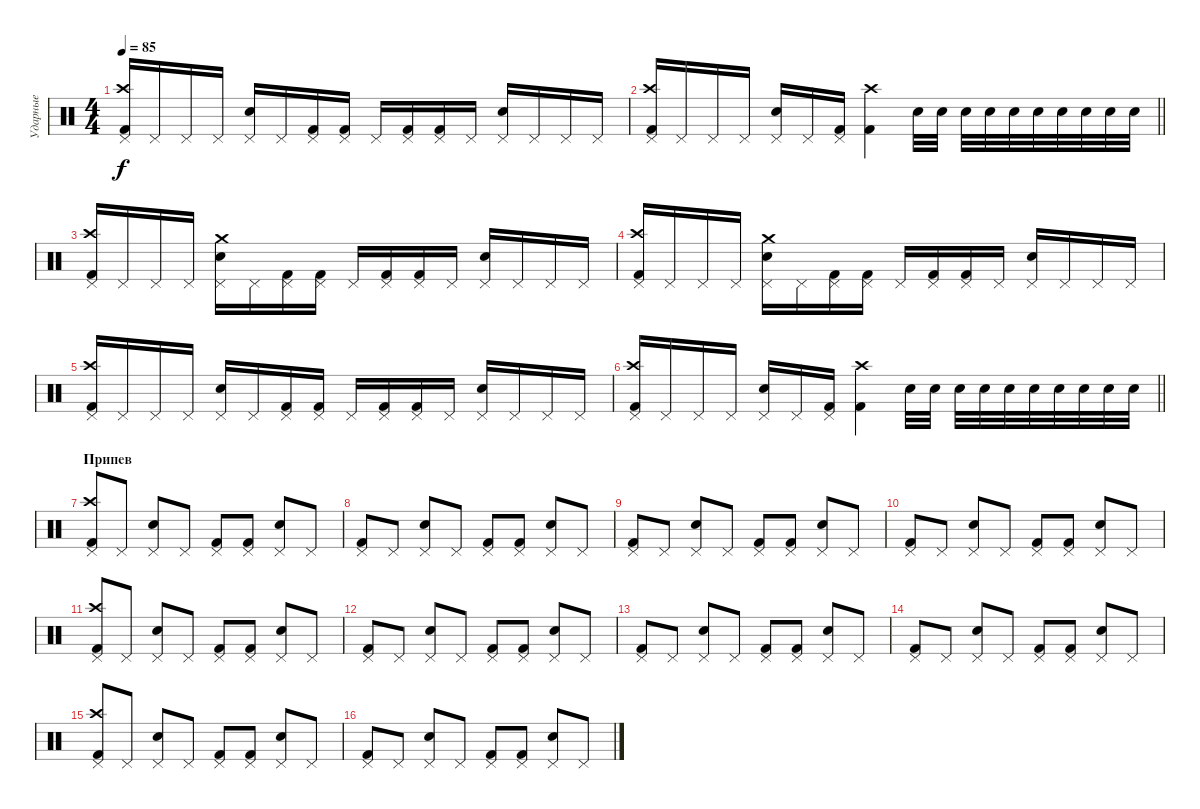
\track ("Ударные" "Ударные") {instrument percussion}
\staff {score}
\articulation defaults
\ts (4 4)
\tempo 85
\clef neutral
\ks c
("Pedal Hi-Hat (hit)" "Crash high (hit)" "Kick (hit) 2").16{dy f} "Pedal Hi-Hat (hit)".16 "Pedal Hi-Hat (hit)".16 "Pedal Hi-Hat (hit)".16 ("Pedal Hi-Hat (hit)" "Electric Snare (hit)").16 "Pedal Hi-Hat (hit)".16 ("Pedal Hi-Hat (hit)" "Kick (hit) 2").16 ("Pedal Hi-Hat (hit)" "Kick (hit) 2").16 "Pedal Hi-Hat (hit)".16 ("Pedal Hi-Hat (hit)" "Kick (hit) 2").16 ("Pedal Hi-Hat (hit)" "Kick (hit) 2").16 "Pedal Hi-Hat (hit)".16 ("Pedal Hi-Hat (hit)" "Electric Snare (hit)").16 "Pedal Hi-Hat (hit)".16 "Pedal Hi-Hat (hit)".16 "Pedal Hi-Hat (hit)".16 |
\barLineRight lightlight
("Pedal Hi-Hat (hit)" "Crash high (hit)" "Kick (hit) 2").16 "Pedal Hi-Hat (hit)".16 "Pedal Hi-Hat (hit)".16 "Pedal Hi-Hat (hit)".16 ("Pedal Hi-Hat (hit)" "Electric Snare (hit)").16 "Pedal Hi-Hat (hit)".16 ("Pedal Hi-Hat (hit)" "Kick (hit) 2").16 ("Crash high (hit)" "Kick (hit) 2").4 "Electric Snare (hit)".32 "Electric Snare (hit)".32 "Electric Snare (hit)".32 "Electric Snare (hit)".32 "Electric Snare (hit)".32 "Electric Snare (hit)".32 "Electric Snare (hit)".32 "Electric Snare (hit)".32 "Electric Snare (hit)".32 "Electric Snare (hit)".32 |
("Pedal Hi-Hat (hit)" "Crash high (hit)" "Kick (hit) 2").16 "Pedal Hi-Hat (hit)".16 "Pedal Hi-Hat (hit)".16 "Pedal Hi-Hat (hit)".16 ("Pedal Hi-Hat (hit)" "Crash medium (hit)" "Electric Snare (hit)").16 "Pedal Hi-Hat (hit)".16 ("Pedal Hi-Hat (hit)" "Kick (hit) 2").16 ("Pedal Hi-Hat (hit)" "Kick (hit) 2").16 "Pedal Hi-Hat (hit)".16 ("Pedal Hi-Hat (hit)" "Kick (hit) 2").16 ("Pedal Hi-Hat (hit)" "Kick (hit) 2").16 "Pedal Hi-Hat (hit)".16 ("Pedal Hi-Hat (hit)" "Electric Snare (hit)").16 "Pedal Hi-Hat (hit)".16 "Pedal Hi-Hat (hit)".16 "Pedal Hi-Hat (hit)".16 |
("Pedal Hi-Hat (hit)" "Crash high (hit)" "Kick (hit) 2").16 "Pedal Hi-Hat (hit)".16 "Pedal Hi-Hat (hit)".16 "Pedal Hi-Hat (hit)".16 ("Pedal Hi-Hat (hit)" "Crash medium (hit)" "Electric Snare (hit)").16 "Pedal Hi-Hat (hit)".16 ("Pedal Hi-Hat (hit)" "Kick (hit) 2").16 ("Pedal Hi-Hat (hit)" "Kick (hit) 2").16 "Pedal Hi-Hat (hit)".16 ("Pedal Hi-Hat (hit)" "Kick (hit) 2").16 ("Pedal Hi-Hat (hit)" "Kick (hit) 2").16 "Pedal Hi-Hat (hit)".16 ("Pedal Hi-Hat (hit)" "Electric Snare (hit)").16 "Pedal Hi-Hat (hit)".16 "Pedal Hi-Hat (hit)".16 "Pedal Hi-Hat (hit)".16 |
("Pedal Hi-Hat (hit)" "Crash high (hit)" "Kick (hit) 2").16 "Pedal Hi-Hat (hit)".16 "Pedal Hi-Hat (hit)".16 "Pedal Hi-Hat (hit)".16 ("Pedal Hi-Hat (hit)" "Electric Snare (hit)").16 "Pedal Hi-Hat (hit)".16 ("Pedal Hi-Hat (hit)" "Kick (hit) 2").16 ("Pedal Hi-Hat (hit)" "Kick (hit) 2").16 "Pedal Hi-Hat (hit)".16 ("Pedal Hi-Hat (hit)" "Kick (hit) 2").16 ("Pedal Hi-Hat (hit)" "Kick (hit) 2").16 "Pedal Hi-Hat (hit)".16 ("Pedal Hi-Hat (hit)" "Electric Snare (hit)").16 "Pedal Hi-Hat (hit)".16 "Pedal Hi-Hat (hit)".16 "Pedal Hi-Hat (hit)".16 |
\barLineRight lightlight
("Pedal Hi-Hat (hit)" "Crash high (hit)" "Kick (hit) 2").16 "Pedal Hi-Hat (hit)".16 "Pedal Hi-Hat (hit)".16 "Pedal Hi-Hat (hit)".16 ("Pedal Hi-Hat (hit)" "Electric Snare (hit)").16 "Pedal Hi-Hat (hit)".16 ("Pedal Hi-Hat (hit)" "Kick (hit) 2").16 ("Crash high (hit)" "Kick (hit) 2").4 "Electric Snare (hit)".32 "Electric Snare (hit)".32 "Electric Snare (hit)".32 "Electric Snare (hit)".32 "Electric Snare (hit)".32 "Electric Snare (hit)".32 "Electric Snare (hit)".32 "Electric Snare (hit)".32 "Electric Snare (hit)".32 "Electric Snare (hit)".32 |
\section ("" "Припев")
("Pedal Hi-Hat (hit)" "Crash high (hit)" "Kick (hit) 2").8 "Pedal Hi-Hat (hit)".8 ("Pedal Hi-Hat (hit)" "Electric Snare (hit)").8 "Pedal Hi-Hat (hit)".8 ("Pedal Hi-Hat (hit)" "Kick (hit) 2").8 ("Pedal Hi-Hat (hit)" "Kick (hit) 2").8 ("Pedal Hi-Hat (hit)" "Electric Snare (hit)").8 "Pedal Hi-Hat (hit)".8 |
("Pedal Hi-Hat (hit)" "Kick (hit) 2").8 "Pedal Hi-Hat (hit)".8 ("Pedal Hi-Hat (hit)" "Electric Snare (hit)").8 "Pedal Hi-Hat (hit)".8 ("Pedal Hi-Hat (hit)" "Kick (hit) 2").8 ("Pedal Hi-Hat (hit)" "Kick (hit) 2").8 ("Pedal Hi-Hat (hit)" "Electric Snare (hit)").8 "Pedal Hi-Hat (hit)".8 |
("Pedal Hi-Hat (hit)" "Kick (hit) 2").8 "Pedal Hi-Hat (hit)".8 ("Pedal Hi-Hat (hit)" "Electric Snare (hit)").8 "Pedal Hi-Hat (hit)".8 ("Pedal Hi-Hat (hit)" "Kick (hit) 2").8 ("Pedal Hi-Hat (hit)" "Kick (hit) 2").8 ("Pedal Hi-Hat (hit)" "Electric Snare (hit)").8 "Pedal Hi-Hat (hit)".8 |
("Pedal Hi-Hat (hit)" "Kick (hit) 2").8 "Pedal Hi-Hat (hit)".8 ("Pedal Hi-Hat (hit)" "Electric Snare (hit)").8 "Pedal Hi-Hat (hit)".8 ("Pedal Hi-Hat (hit)" "Kick (hit) 2").8 ("Pedal Hi-Hat (hit)" "Kick (hit) 2").8 ("Pedal Hi-Hat (hit)" "Electric Snare (hit)").8 "Pedal Hi-Hat (hit)".8 |
("Pedal Hi-Hat (hit)" "Crash high (hit)" "Kick (hit) 2").8 "Pedal Hi-Hat (hit)".8 ("Pedal Hi-Hat (hit)" "Electric Snare (hit)").8 "Pedal Hi-Hat (hit)".8 ("Pedal Hi-Hat (hit)" "Kick (hit) 2").8 ("Pedal Hi-Hat (hit)" "Kick (hit) 2").8 ("Pedal Hi-Hat (hit)" "Electric Snare (hit)").8 "Pedal Hi-Hat (hit)".8 |
("Pedal Hi-Hat (hit)" "Kick (hit) 2").8 "Pedal Hi-Hat (hit)".8 ("Pedal Hi-Hat (hit)" "Electric Snare (hit)").8 "Pedal Hi-Hat (hit)".8 ("Pedal Hi-Hat (hit)" "Kick (hit) 2").8 ("Pedal Hi-Hat (hit)" "Kick (hit) 2").8 ("Pedal Hi-Hat (hit)" "Electric Snare (hit)").8 "Pedal Hi-Hat (hit)".8 |
("Pedal Hi-Hat (hit)" "Kick (hit) 2").8 "Pedal Hi-Hat (hit)".8 ("Pedal Hi-Hat (hit)" "Electric Snare (hit)").8 "Pedal Hi-Hat (hit)".8 ("Pedal Hi-Hat (hit)" "Kick (hit) 2").8 ("Pedal Hi-Hat (hit)" "Kick (hit) 2").8 ("Pedal Hi-Hat (hit)" "Electric Snare (hit)").8 "Pedal Hi-Hat (hit)".8 |
("Pedal Hi-Hat (hit)" "Kick (hit) 2").8 "Pedal Hi-Hat (hit)".8 ("Pedal Hi-Hat (hit)" "Electric Snare (hit)").8 "Pedal Hi-Hat (hit)".8 ("Pedal Hi-Hat (hit)" "Kick (hit) 2").8 ("Pedal Hi-Hat (hit)" "Kick (hit) 2").8 ("Pedal Hi-Hat (hit)" "Electric Snare (hit)").8 "Pedal Hi-Hat (hit)".8 |
("Pedal Hi-Hat (hit)" "Crash high (hit)" "Kick (hit) 2").8 "Pedal Hi-Hat (hit)".8 ("Pedal Hi-Hat (hit)" "Electric Snare (hit)").8 "Pedal Hi-Hat (hit)".8 ("Pedal Hi-Hat (hit)" "Kick (hit) 2").8 ("Pedal Hi-Hat (hit)" "Kick (hit) 2").8 ("Pedal Hi-Hat (hit)" "Electric Snare (hit)").8 "Pedal Hi-Hat (hit)".8 |
("Pedal Hi-Hat (hit)" "Kick (hit) 2").8 "Pedal Hi-Hat (hit)".8 ("Pedal Hi-Hat (hit)" "Electric Snare (hit)").8 "Pedal Hi-Hat (hit)".8 ("Pedal Hi-Hat (hit)" "Kick (hit) 2").8 ("Pedal Hi-Hat (hit)" "Kick (hit) 2").8 ("Pedal Hi-Hat (hit)" "Electric Snare (hit)").8 "Pedal Hi-Hat (hit)".8
